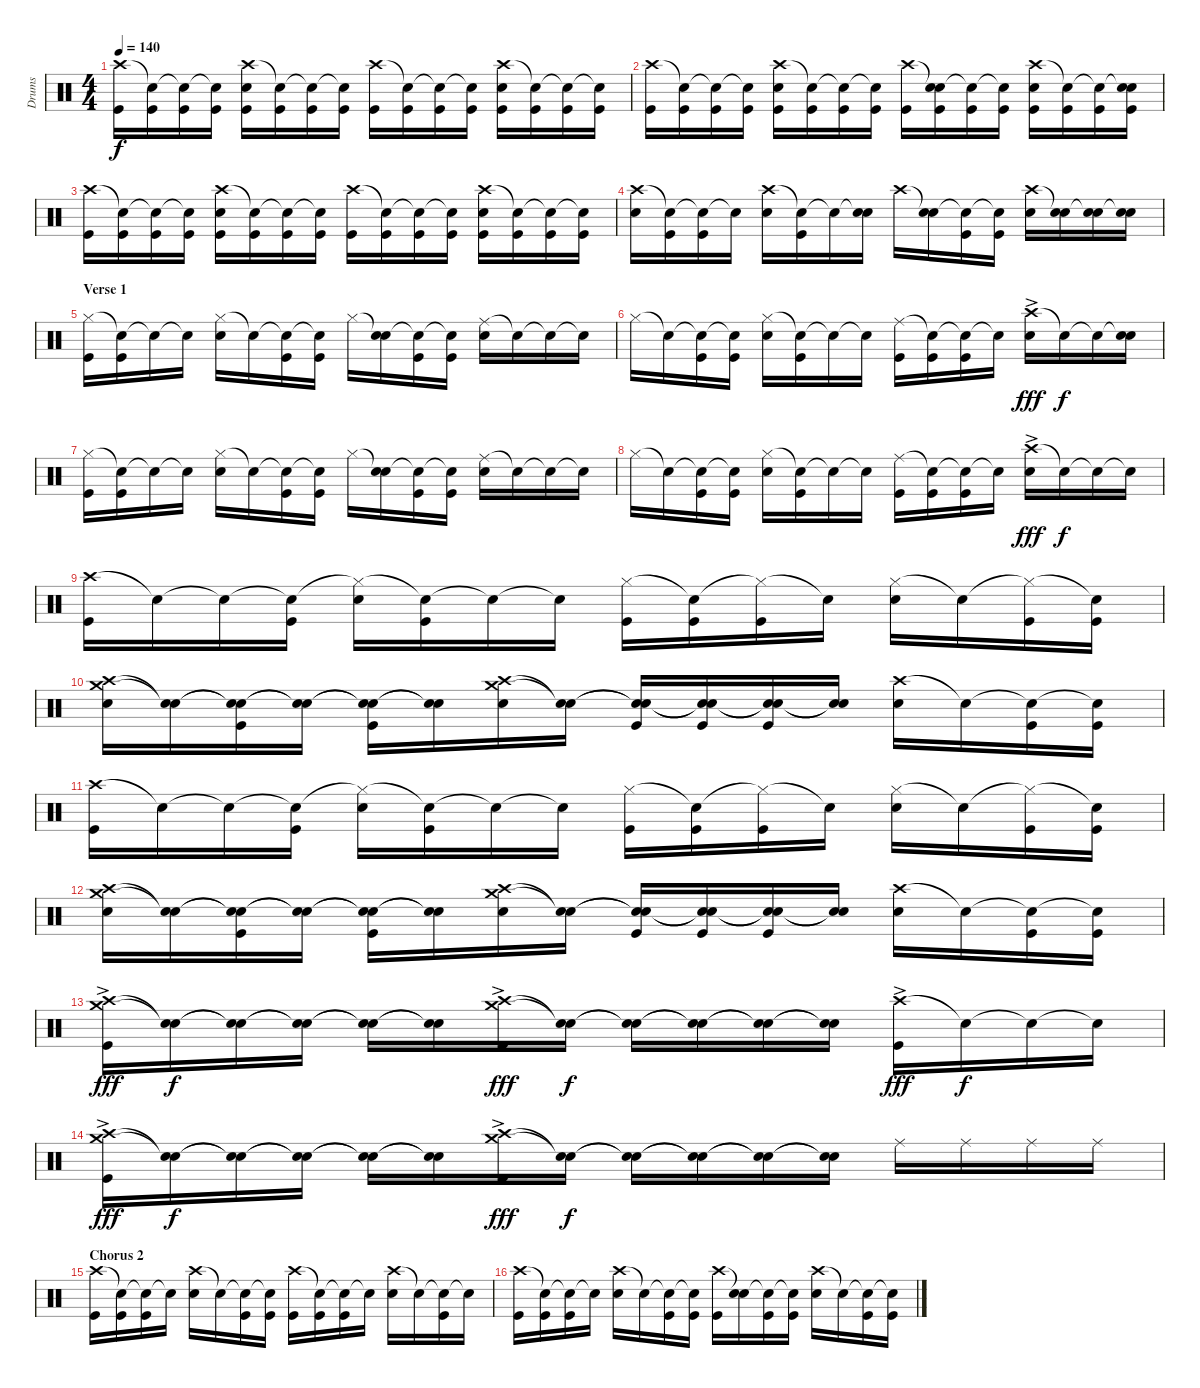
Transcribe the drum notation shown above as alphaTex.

\track ("Drums" "Drums") {instrument percussion}
\staff {score}
\articulation defaults
\ts (4 4)
\tempo 140
\clef neutral
\ks c
("Crash high (hit)" "Kick (hit)").16{dy f} ("Snare (hit)"{t} "Kick (hit)").16 ("Snare (hit)"{t} "Kick (hit)").16 ("Snare (hit)"{t} "Kick (hit)").16 ("Crash high (hit)" "Electric Snare (hit)" "Kick (hit)").16 ("Snare (hit)"{t} "Kick (hit)").16 ("Snare (hit)"{t} "Kick (hit)").16 ("Snare (hit)"{t} "Kick (hit)").16 ("Crash high (hit)" "Kick (hit)").16 ("Snare (hit)"{t} "Kick (hit)").16 ("Snare (hit)"{t} "Kick (hit)").16 ("Snare (hit)"{t} "Kick (hit)").16 ("Crash high (hit)" "Electric Snare (hit)" "Kick (hit)").16 ("Snare (hit)"{t} "Kick (hit)").16 ("Snare (hit)"{t} "Kick (hit)").16 ("Snare (hit)"{t} "Kick (hit)").16 |
("Crash high (hit)" "Kick (hit)").16 ("Snare (hit)"{t} "Kick (hit)").16 ("Snare (hit)"{t} "Kick (hit)").16 ("Snare (hit)"{t} "Kick (hit)").16 ("Crash high (hit)" "Electric Snare (hit)" "Kick (hit)").16 ("Snare (hit)"{t} "Kick (hit)").16 ("Snare (hit)"{t} "Kick (hit)").16 ("Snare (hit)"{t} "Kick (hit)").16 ("Crash high (hit)" "Kick (hit)").16 ("Snare (hit)"{t} "Electric Snare (hit)" "Kick (hit)").16 ("Snare (hit)"{t} "Kick (hit)").16 ("Snare (hit)"{t} "Kick (hit)").16 ("Crash high (hit)" "Electric Snare (hit)" "Kick (hit)").16 ("Snare (hit)"{t} "Kick (hit)").16 ("Snare (hit)"{t} "Kick (hit)").16 ("Snare (hit)"{t} "Electric Snare (hit)" "Kick (hit)").16 |
("Crash high (hit)" "Kick (hit)").16 ("Snare (hit)"{t} "Kick (hit)").16 ("Snare (hit)"{t} "Kick (hit)").16 ("Snare (hit)"{t} "Kick (hit)").16 ("Crash high (hit)" "Electric Snare (hit)" "Kick (hit)").16 ("Snare (hit)"{t} "Kick (hit)").16 ("Snare (hit)"{t} "Kick (hit)").16 ("Snare (hit)"{t} "Kick (hit)").16 ("Crash high (hit)" "Kick (hit)").16 ("Snare (hit)"{t} "Kick (hit)").16 ("Snare (hit)"{t} "Kick (hit)").16 ("Snare (hit)"{t} "Kick (hit)").16 ("Crash high (hit)" "Electric Snare (hit)" "Kick (hit)").16 ("Snare (hit)"{t} "Kick (hit)").16 ("Snare (hit)"{t} "Kick (hit)").16 ("Snare (hit)"{t} "Kick (hit)").16 |
("Crash high (hit)" "Electric Snare (hit)").16 ("Snare (hit)"{t} "Kick (hit)").16 ("Snare (hit)"{t} "Kick (hit)").16 "Snare (hit)"{t}.16 ("Crash high (hit)" "Electric Snare (hit)").16 ("Snare (hit)"{t} "Kick (hit)").16 "Snare (hit)"{t}.16 ("Snare (hit)"{t} "Electric Snare (hit)").16 "Crash high (hit)".16 ("Snare (hit)"{t} "Electric Snare (hit)").16 ("Snare (hit)"{t} "Kick (hit)").16 ("Snare (hit)"{t} "Kick (hit)").16 ("Crash high (hit)" "Electric Snare (hit)").16 ("Snare (hit)"{t} "Electric Snare (hit)").16 ("Snare (hit)"{t} "Electric Snare (hit)").16 ("Snare (hit)"{t} "Electric Snare (hit)").16 |
\section ("" "Verse 1")
("Hi-Hat (closed)" "Kick (hit)").16 ("Snare (hit)"{t} "Kick (hit)").16 "Snare (hit)"{t}.16 "Snare (hit)"{t}.16 ("Hi-Hat (closed)" "Electric Snare (hit)").16 "Snare (hit)"{t}.16 ("Snare (hit)"{t} "Kick (hit)").16 ("Snare (hit)"{t} "Kick (hit)").16 "Hi-Hat (closed)".16 ("Snare (hit)"{t} "Electric Snare (hit)").16 ("Snare (hit)"{t} "Kick (hit)").16 ("Snare (hit)"{t} "Kick (hit)").16 ("Ride (middle)" "Electric Snare (hit)").16 "Snare (hit)"{t}.16 "Snare (hit)"{t}.16 "Snare (hit)"{t}.16 |
"Hi-Hat (closed)".16 "Snare (hit)"{t}.16 ("Snare (hit)"{t} "Kick (hit)").16 ("Snare (hit)"{t} "Kick (hit)").16 ("Hi-Hat (closed)" "Electric Snare (hit)").16 ("Snare (hit)"{t} "Kick (hit)").16 "Snare (hit)"{t}.16 "Snare (hit)"{t}.16 ("Ride (middle)" "Kick (hit)").16 ("Snare (hit)"{t} "Kick (hit)").16 ("Snare (hit)"{t} "Kick (hit)").16 "Snare (hit)"{t}.16 ("Crash high (hit)"{ac} "Electric Snare (hit)").16{dy fff} "Snare (hit)"{t}.16{dy f} "Snare (hit)"{t}.16 ("Snare (hit)"{t} "Electric Snare (hit)").16 |
("Hi-Hat (closed)" "Kick (hit)").16 ("Snare (hit)"{t} "Kick (hit)").16 "Snare (hit)"{t}.16 "Snare (hit)"{t}.16 ("Hi-Hat (closed)" "Electric Snare (hit)").16 "Snare (hit)"{t}.16 ("Snare (hit)"{t} "Kick (hit)").16 ("Snare (hit)"{t} "Kick (hit)").16 "Hi-Hat (closed)".16 ("Snare (hit)"{t} "Electric Snare (hit)").16 ("Snare (hit)"{t} "Kick (hit)").16 ("Snare (hit)"{t} "Kick (hit)").16 ("Ride (middle)" "Electric Snare (hit)").16 "Snare (hit)"{t}.16 "Snare (hit)"{t}.16 "Snare (hit)"{t}.16 |
"Hi-Hat (closed)".16 "Snare (hit)"{t}.16 ("Snare (hit)"{t} "Kick (hit)").16 ("Snare (hit)"{t} "Kick (hit)").16 ("Hi-Hat (closed)" "Electric Snare (hit)").16 ("Snare (hit)"{t} "Kick (hit)").16 "Snare (hit)"{t}.16 "Snare (hit)"{t}.16 ("Ride (middle)" "Kick (hit)").16 ("Snare (hit)"{t} "Kick (hit)").16 ("Snare (hit)"{t} "Kick (hit)").16 "Snare (hit)"{t}.16 ("Crash high (hit)"{ac} "Electric Snare (hit)").16{dy fff} "Snare (hit)"{t}.16{dy f} "Snare (hit)"{t}.16 "Snare (hit)"{t}.16 |
("Crash high (hit)" "Kick (hit)").16 "Snare (hit)"{t}.16 "Snare (hit)"{t}.16 ("Snare (hit)"{t} "Kick (hit)").16 ("Hi-Hat (closed)"{t} "Electric Snare (hit)").16 ("Snare (hit)"{t} "Kick (hit)").16 "Snare (hit)"{t}.16 "Snare (hit)"{t}.16 ("Hi-Hat (closed)" "Kick (hit)").16 ("Snare (hit)"{t} "Kick (hit)").16 ("Hi-Hat (closed)"{t} "Kick (hit)").16 "Snare (hit)"{t}.16 ("Hi-Hat (closed)" "Electric Snare (hit)").16 "Snare (hit)"{t}.16 ("Hi-Hat (closed)"{t} "Kick (hit)").16 ("Snare (hit)"{t} "Kick (hit)").16 |
("Crash medium (hit)" "Crash high (hit)" "Electric Snare (hit)").16 ("Snare (hit)"{t} "Snare (hit)"{t}).16 ("Snare (hit)"{t} "Snare (hit)"{t} "Kick (hit)").16 ("Snare (hit)"{t} "Snare (hit)"{t}).16 ("Snare (hit)"{t} "Snare (hit)"{t} "Kick (hit)").16 ("Snare (hit)"{t} "Snare (hit)"{t}).16 ("Crash medium (hit)" "Crash high (hit)" "Electric Snare (hit)").16 ("Snare (hit)"{t} "Snare (hit)"{t}).16 ("Snare (hit)"{t} "Snare (hit)"{t} "Kick (hit)").16 ("Snare (hit)"{t} "Snare (hit)"{t} "Kick (hit)").16 ("Snare (hit)"{t} "Snare (hit)"{t} "Kick (hit)").16 ("Snare (hit)"{t} "Snare (hit)"{t}).16 ("Crash high (hit)" "Electric Snare (hit)").16 "Snare (hit)"{t}.16 ("Snare (hit)"{t} "Kick (hit)").16 ("Snare (hit)"{t} "Kick (hit)").16 |
("Crash high (hit)" "Kick (hit)").16 "Snare (hit)"{t}.16 "Snare (hit)"{t}.16 ("Snare (hit)"{t} "Kick (hit)").16 ("Hi-Hat (closed)"{t} "Electric Snare (hit)").16 ("Snare (hit)"{t} "Kick (hit)").16 "Snare (hit)"{t}.16 "Snare (hit)"{t}.16 ("Hi-Hat (closed)" "Kick (hit)").16 ("Snare (hit)"{t} "Kick (hit)").16 ("Hi-Hat (closed)"{t} "Kick (hit)").16 "Snare (hit)"{t}.16 ("Hi-Hat (closed)" "Electric Snare (hit)").16 "Snare (hit)"{t}.16 ("Hi-Hat (closed)"{t} "Kick (hit)").16 ("Snare (hit)"{t} "Kick (hit)").16 |
("Crash medium (hit)" "Crash high (hit)" "Electric Snare (hit)").16 ("Snare (hit)"{t} "Snare (hit)"{t}).16 ("Snare (hit)"{t} "Snare (hit)"{t} "Kick (hit)").16 ("Snare (hit)"{t} "Snare (hit)"{t}).16 ("Snare (hit)"{t} "Snare (hit)"{t} "Kick (hit)").16 ("Snare (hit)"{t} "Snare (hit)"{t}).16 ("Crash medium (hit)" "Crash high (hit)" "Electric Snare (hit)").16 ("Snare (hit)"{t} "Snare (hit)"{t}).16 ("Snare (hit)"{t} "Snare (hit)"{t} "Kick (hit)").16 ("Snare (hit)"{t} "Snare (hit)"{t} "Kick (hit)").16 ("Snare (hit)"{t} "Snare (hit)"{t} "Kick (hit)").16 ("Snare (hit)"{t} "Snare (hit)"{t}).16 ("Crash high (hit)" "Electric Snare (hit)").16 "Snare (hit)"{t}.16 ("Snare (hit)"{t} "Kick (hit)").16 ("Snare (hit)"{t} "Kick (hit)").16 |
("Crash medium (hit)"{ac} "Crash high (hit)"{ac} "Kick (hit)").16{dy fff} ("Snare (hit)"{t} "Snare (hit)"{t}).16{dy f} ("Snare (hit)"{t} "Snare (hit)"{t}).16 ("Snare (hit)"{t} "Snare (hit)"{t}).16 ("Snare (hit)"{t} "Snare (hit)"{t}).16 ("Snare (hit)"{t} "Snare (hit)"{t}).16 ("Crash medium (hit)"{ac} "Crash high (hit)"{ac} "Kick (hit)").16{dy fff} ("Snare (hit)"{t} "Snare (hit)"{t}).16{dy f} ("Snare (hit)"{t} "Snare (hit)"{t}).16 ("Snare (hit)"{t} "Snare (hit)"{t}).16 ("Snare (hit)"{t} "Snare (hit)"{t}).16 ("Snare (hit)"{t} "Snare (hit)"{t}).16 ("Crash high (hit)"{ac} "Kick (hit)").16{dy fff} "Snare (hit)"{t}.16{dy f} "Snare (hit)"{t}.16 "Snare (hit)"{t}.16 |
("Crash medium (hit)"{ac} "Crash high (hit)"{ac} "Kick (hit)").16{dy fff} ("Snare (hit)"{t} "Snare (hit)"{t}).16{dy f} ("Snare (hit)"{t} "Snare (hit)"{t}).16 ("Snare (hit)"{t} "Snare (hit)"{t}).16 ("Snare (hit)"{t} "Snare (hit)"{t}).16 ("Snare (hit)"{t} "Snare (hit)"{t}).16 ("Crash medium (hit)"{ac} "Crash high (hit)"{ac} "Kick (hit)").16{dy fff} ("Snare (hit)"{t} "Snare (hit)"{t}).16{dy f} ("Snare (hit)"{t} "Snare (hit)"{t}).16 ("Snare (hit)"{t} "Snare (hit)"{t}).16 ("Snare (hit)"{t} "Snare (hit)"{t}).16 ("Snare (hit)"{t} "Snare (hit)"{t}).16 "Ride (middle)".16 "Ride (middle)".16 "Ride (middle)".16 "Ride (middle)".16 |
\section ("" "Chorus 2")
("Crash high (hit)" "Kick (hit)").16 ("Snare (hit)"{t} "Kick (hit)").16 ("Snare (hit)"{t} "Kick (hit)").16 "Snare (hit)"{t}.16 ("Crash high (hit)" "Electric Snare (hit)").16 "Snare (hit)"{t}.16 ("Snare (hit)"{t} "Kick (hit)").16 ("Snare (hit)"{t} "Kick (hit)").16 ("Crash high (hit)" "Kick (hit)").16 ("Snare (hit)"{t} "Kick (hit)").16 ("Snare (hit)"{t} "Kick (hit)").16 "Snare (hit)"{t}.16 ("Crash high (hit)" "Electric Snare (hit)").16 "Snare (hit)"{t}.16 ("Snare (hit)"{t} "Kick (hit)").16 "Snare (hit)"{t}.16 |
("Crash high (hit)" "Kick (hit)").16 ("Snare (hit)"{t} "Kick (hit)").16 ("Snare (hit)"{t} "Kick (hit)").16 "Snare (hit)"{t}.16 ("Crash high (hit)" "Electric Snare (hit)").16 "Snare (hit)"{t}.16 ("Snare (hit)"{t} "Kick (hit)").16 ("Snare (hit)"{t} "Kick (hit)").16 ("Crash high (hit)" "Kick (hit)").16 ("Snare (hit)"{t} "Electric Snare (hit)").16 ("Snare (hit)"{t} "Kick (hit)").16 ("Snare (hit)"{t} "Kick (hit)").16 ("Crash high (hit)" "Electric Snare (hit)").16 "Snare (hit)"{t}.16 ("Snare (hit)"{t} "Kick (hit)").16 ("Snare (hit)"{t} "Kick (hit)").16
